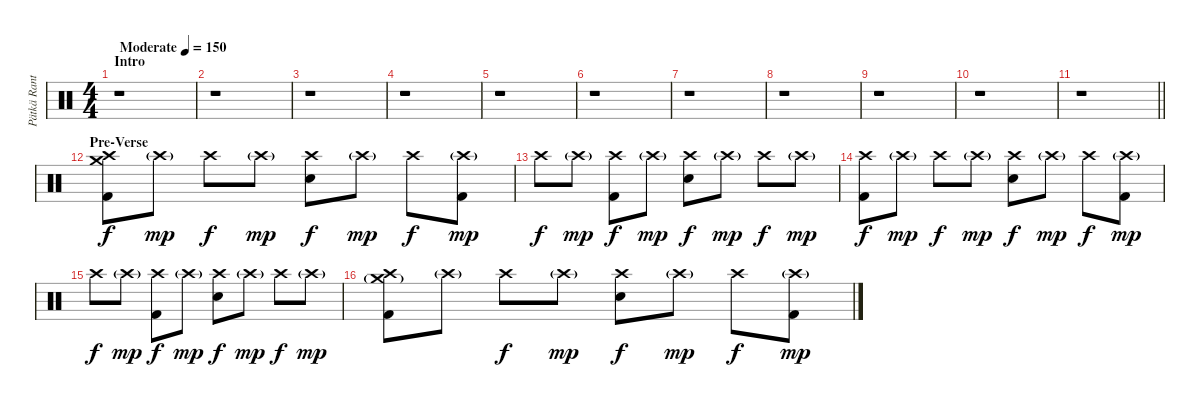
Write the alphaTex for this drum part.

\track ("Pätkä Rantala (Drums)" "Pätkä Rant") {instrument percussion}
\staff {score}
\articulation defaults
\ts (4 4)
\section ("" "Intro")
\tempo (150 "Moderate")
\clef neutral
\ks c
r.1{dy f} |
r.1 |
r.1 |
r.1 |
r.1 |
r.1 |
r.1 |
r.1 |
r.1 |
r.1 |
\barLineRight lightlight
r.1 |
\section ("" "Pre-Verse")
("Crash medium (hit)" "Crash high (hit)" "Kick (hit) 2").8 "Crash high (hit)"{g}.8{dy mp} "Crash high (hit)".8{dy f} "Crash high (hit)"{g}.8{dy mp} ("Crash high (hit)" "Snare (hit) 2").8{dy f} "Crash high (hit)"{g}.8{dy mp} "Crash high (hit)".8{dy f} ("Crash high (hit)"{g} "Kick (hit) 2").8{dy mp} |
"Crash high (hit)".8{dy f} "Crash high (hit)"{g}.8{dy mp} ("Crash high (hit)" "Kick (hit) 2").8{dy f} "Crash high (hit)"{g}.8{dy mp} ("Crash high (hit)" "Snare (hit) 2").8{dy f} "Crash high (hit)"{g}.8{dy mp} "Crash high (hit)".8{dy f} "Crash high (hit)"{g}.8{dy mp} |
("Crash high (hit)" "Kick (hit) 2").8{dy f} "Crash high (hit)"{g}.8{dy mp} "Crash high (hit)".8{dy f} "Crash high (hit)"{g}.8{dy mp} ("Crash high (hit)" "Snare (hit) 2").8{dy f} "Crash high (hit)"{g}.8{dy mp} "Crash high (hit)".8{dy f} ("Crash high (hit)"{g} "Kick (hit) 2").8{dy mp} |
"Crash high (hit)".8{dy f} "Crash high (hit)"{g}.8{dy mp} ("Crash high (hit)" "Kick (hit) 2").8{dy f} "Crash high (hit)"{g}.8{dy mp} ("Crash high (hit)" "Snare (hit) 2").8{dy f} "Crash high (hit)"{g}.8{dy mp} "Crash high (hit)".8{dy f} "Crash high (hit)"{g}.8{dy mp} |
("Crash medium (hit)"{g} "Crash high (hit)" "Kick (hit) 2").8 "Crash high (hit)"{g}.8 "Crash high (hit)".8{dy f} "Crash high (hit)"{g}.8{dy mp} ("Crash high (hit)" "Snare (hit) 2").8{dy f} "Crash high (hit)"{g}.8{dy mp} "Crash high (hit)".8{dy f} ("Crash high (hit)"{g} "Kick (hit) 2").8{dy mp}
